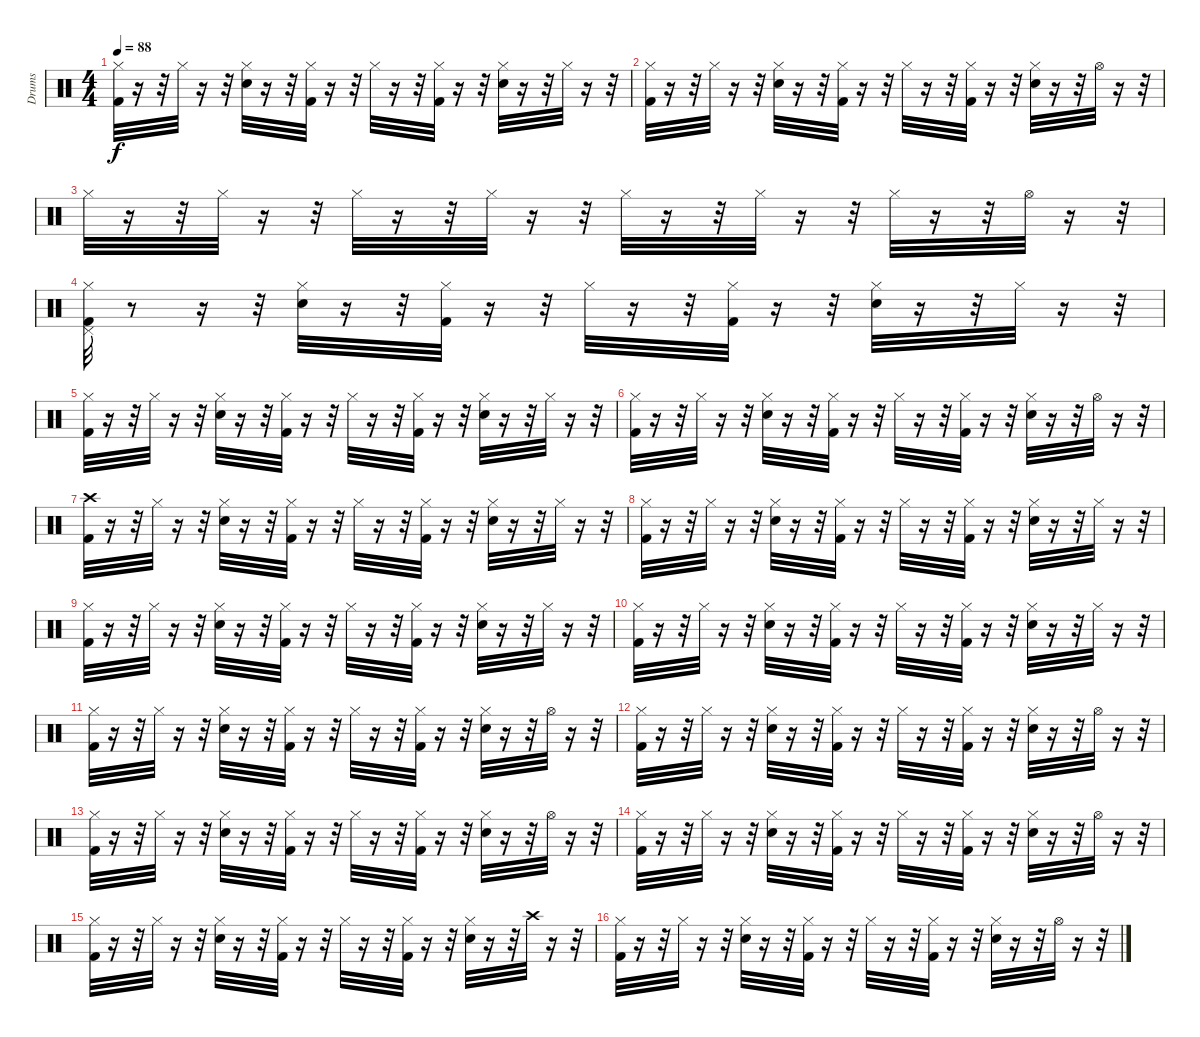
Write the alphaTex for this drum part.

\track ("Drums" "Drums") {instrument percussion}
\staff {score}
\articulation defaults
\ts (4 4)
\tempo 88
\clef neutral
\ks c
("Hi-Hat (closed)" "Kick (hit) 2").32{dy f} r.16 r.32 "Hi-Hat (closed)".32 r.16 r.32 ("Hi-Hat (closed)" "Electric Snare (hit)").32 r.16 r.32 ("Kick (hit) 2" "Hi-Hat (closed)").32 r.16 r.32 "Hi-Hat (closed)".32 r.16 r.32 ("Kick (hit) 2" "Hi-Hat (closed)").32 r.16 r.32 ("Hi-Hat (closed)" "Electric Snare (hit)").32 r.16 r.32 "Hi-Hat (closed)".32 r.16 r.32 |
("Hi-Hat (closed)" "Kick (hit) 2").32 r.16 r.32 "Hi-Hat (closed)".32 r.16 r.32 ("Hi-Hat (closed)" "Electric Snare (hit)").32 r.16 r.32 ("Kick (hit) 2" "Hi-Hat (closed)").32 r.16 r.32 "Hi-Hat (closed)".32 r.16 r.32 ("Kick (hit) 2" "Hi-Hat (closed)").32 r.16 r.32 ("Hi-Hat (closed)" "Electric Snare (hit)").32 r.16 r.32 "Hi-Hat (open)".32 r.16 r.32 |
"Hi-Hat (closed)".32 r.16 r.32 "Hi-Hat (closed)".32 r.16 r.32 "Hi-Hat (closed)".32 r.16 r.32 "Hi-Hat (closed)".32 r.16 r.32 "Hi-Hat (closed)".32 r.16 r.32 "Hi-Hat (closed)".32 r.16 r.32 "Hi-Hat (closed)".32 r.16 r.32 "Hi-Hat (open)".32 r.16 r.32 |
("Hi-Hat (closed)" "Pedal Hi-Hat (hit)" "Kick (hit) 2").32 r.8 r.16 r.32 ("Hi-Hat (closed)" "Electric Snare (hit)").32 r.16 r.32 ("Kick (hit) 2" "Hi-Hat (closed)").32 r.16 r.32 "Hi-Hat (closed)".32 r.16 r.32 ("Kick (hit) 2" "Hi-Hat (closed)").32 r.16 r.32 ("Hi-Hat (closed)" "Electric Snare (hit)").32 r.16 r.32 "Hi-Hat (closed)".32 r.16 r.32 |
("Hi-Hat (closed)" "Kick (hit) 2").32 r.16 r.32 "Hi-Hat (closed)".32 r.16 r.32 ("Hi-Hat (closed)" "Electric Snare (hit)").32 r.16 r.32 ("Kick (hit) 2" "Hi-Hat (closed)").32 r.16 r.32 "Hi-Hat (closed)".32 r.16 r.32 ("Kick (hit) 2" "Hi-Hat (closed)").32 r.16 r.32 ("Hi-Hat (closed)" "Electric Snare (hit)").32 r.16 r.32 "Hi-Hat (closed)".32 r.16 r.32 |
("Hi-Hat (closed)" "Kick (hit) 2").32 r.16 r.32 "Hi-Hat (closed)".32 r.16 r.32 ("Hi-Hat (closed)" "Electric Snare (hit)").32 r.16 r.32 ("Kick (hit) 2" "Hi-Hat (closed)").32 r.16 r.32 "Hi-Hat (closed)".32 r.16 r.32 ("Kick (hit) 2" "Hi-Hat (closed)").32 r.16 r.32 ("Hi-Hat (closed)" "Electric Snare (hit)").32 r.16 r.32 "Hi-Hat (open)".32 r.16 r.32 |
("Crash high (hit)" "Kick (hit) 2").32 r.16 r.32 "Hi-Hat (closed)".32 r.16 r.32 ("Hi-Hat (closed)" "Electric Snare (hit)").32 r.16 r.32 ("Kick (hit) 2" "Hi-Hat (closed)").32 r.16 r.32 "Hi-Hat (closed)".32 r.16 r.32 ("Kick (hit) 2" "Hi-Hat (closed)").32 r.16 r.32 ("Hi-Hat (closed)" "Electric Snare (hit)").32 r.16 r.32 "Hi-Hat (closed)".32 r.16 r.32 |
("Hi-Hat (closed)" "Kick (hit) 2").32 r.16 r.32 "Hi-Hat (closed)".32 r.16 r.32 ("Hi-Hat (closed)" "Electric Snare (hit)").32 r.16 r.32 ("Kick (hit) 2" "Hi-Hat (closed)").32 r.16 r.32 "Hi-Hat (closed)".32 r.16 r.32 ("Kick (hit) 2" "Hi-Hat (closed)").32 r.16 r.32 ("Hi-Hat (closed)" "Electric Snare (hit)").32 r.16 r.32 "Hi-Hat (closed)".32 r.16 r.32 |
("Hi-Hat (closed)" "Kick (hit) 2").32 r.16 r.32 "Hi-Hat (closed)".32 r.16 r.32 ("Hi-Hat (closed)" "Electric Snare (hit)").32 r.16 r.32 ("Kick (hit) 2" "Hi-Hat (closed)").32 r.16 r.32 "Hi-Hat (closed)".32 r.16 r.32 ("Kick (hit) 2" "Hi-Hat (closed)").32 r.16 r.32 ("Hi-Hat (closed)" "Electric Snare (hit)").32 r.16 r.32 "Hi-Hat (closed)".32 r.16 r.32 |
("Hi-Hat (closed)" "Kick (hit) 2").32 r.16 r.32 "Hi-Hat (closed)".32 r.16 r.32 ("Hi-Hat (closed)" "Electric Snare (hit)").32 r.16 r.32 ("Kick (hit) 2" "Hi-Hat (closed)").32 r.16 r.32 "Hi-Hat (closed)".32 r.16 r.32 ("Kick (hit) 2" "Hi-Hat (closed)").32 r.16 r.32 ("Hi-Hat (closed)" "Electric Snare (hit)").32 r.16 r.32 "Hi-Hat (closed)".32 r.16 r.32 |
("Hi-Hat (closed)" "Kick (hit) 2").32 r.16 r.32 "Hi-Hat (closed)".32 r.16 r.32 ("Hi-Hat (closed)" "Electric Snare (hit)").32 r.16 r.32 ("Kick (hit) 2" "Hi-Hat (closed)").32 r.16 r.32 "Hi-Hat (closed)".32 r.16 r.32 ("Kick (hit) 2" "Hi-Hat (closed)").32 r.16 r.32 ("Hi-Hat (closed)" "Electric Snare (hit)").32 r.16 r.32 "Hi-Hat (open)".32 r.16 r.32 |
("Hi-Hat (closed)" "Kick (hit) 2").32 r.16 r.32 "Hi-Hat (closed)".32 r.16 r.32 ("Hi-Hat (closed)" "Electric Snare (hit)").32 r.16 r.32 ("Kick (hit) 2" "Hi-Hat (closed)").32 r.16 r.32 "Hi-Hat (closed)".32 r.16 r.32 ("Kick (hit) 2" "Hi-Hat (closed)").32 r.16 r.32 ("Hi-Hat (closed)" "Electric Snare (hit)").32 r.16 r.32 "Hi-Hat (open)".32 r.16 r.32 |
("Hi-Hat (closed)" "Kick (hit) 2").32 r.16 r.32 "Hi-Hat (closed)".32 r.16 r.32 ("Hi-Hat (closed)" "Electric Snare (hit)").32 r.16 r.32 ("Kick (hit) 2" "Hi-Hat (closed)").32 r.16 r.32 "Hi-Hat (closed)".32 r.16 r.32 ("Kick (hit) 2" "Hi-Hat (closed)").32 r.16 r.32 ("Hi-Hat (closed)" "Electric Snare (hit)").32 r.16 r.32 "Hi-Hat (open)".32 r.16 r.32 |
("Hi-Hat (closed)" "Kick (hit) 2").32 r.16 r.32 "Hi-Hat (closed)".32 r.16 r.32 ("Hi-Hat (closed)" "Electric Snare (hit)").32 r.16 r.32 ("Kick (hit) 2" "Hi-Hat (closed)").32 r.16 r.32 "Hi-Hat (closed)".32 r.16 r.32 ("Kick (hit) 2" "Hi-Hat (closed)").32 r.16 r.32 ("Hi-Hat (closed)" "Electric Snare (hit)").32 r.16 r.32 "Hi-Hat (open)".32 r.16 r.32 |
("Hi-Hat (closed)" "Kick (hit) 2").32 r.16 r.32 "Hi-Hat (closed)".32 r.16 r.32 ("Hi-Hat (closed)" "Electric Snare (hit)").32 r.16 r.32 ("Kick (hit) 2" "Hi-Hat (closed)").32 r.16 r.32 "Hi-Hat (closed)".32 r.16 r.32 ("Kick (hit) 2" "Hi-Hat (closed)").32 r.16 r.32 ("Hi-Hat (closed)" "Electric Snare (hit)").32 r.16 r.32 "Crash high (hit)".32 r.16 r.32 |
("Hi-Hat (closed)" "Kick (hit) 2").32 r.16 r.32 "Hi-Hat (closed)".32 r.16 r.32 ("Hi-Hat (closed)" "Electric Snare (hit)").32 r.16 r.32 ("Kick (hit) 2" "Hi-Hat (closed)").32 r.16 r.32 "Hi-Hat (closed)".32 r.16 r.32 ("Kick (hit) 2" "Hi-Hat (closed)").32 r.16 r.32 ("Hi-Hat (closed)" "Electric Snare (hit)").32 r.16 r.32 "Hi-Hat (open)".32 r.16 r.32
